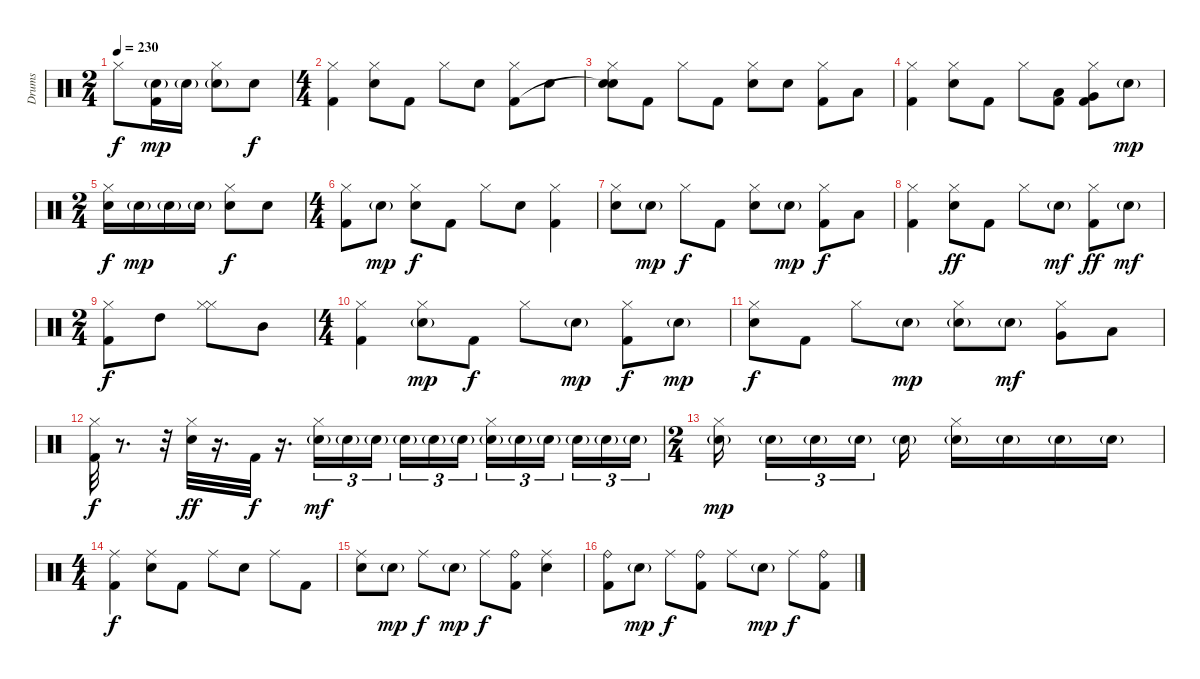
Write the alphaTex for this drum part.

\track ("Drums" "Drums") {instrument percussion}
\staff {score}
\articulation defaults
\ts (2 4)
\tempo 230
\clef neutral
\ks c "Hi-Hat (closed)".8{dy f}
("Snare (hit) 2"{g} "Kick (hit) 2").16{dy mp} "Snare (hit) 2"{g}.16 ("Hi-Hat (closed)" "Snare (hit) 2"{g}).8 "Snare (hit) 2".8{dy f} |
\ts (4 4)
("Hi-Hat (closed)" "Kick (hit) 2").4 ("Hi-Hat (closed)" "Snare (hit) 2").8 "Kick (hit) 2".8 "Hi-Hat (closed)".8 "Snare (hit) 2".8 ("Hi-Hat (closed)" "Kick (hit) 2").8 "Snare (hit) 2".8 |
("Hi-Hat (closed)" "Snare (hit)"{t} "Electric Snare (hit)").8 "Kick (hit) 2".8 "Hi-Hat (closed)".8 "Kick (hit) 2".8 ("Hi-Hat (closed)" "Snare (hit) 2").8 "Snare (hit) 2".8 ("Hi-Hat (closed)" "Kick (hit) 2").8 "Low Tom (hit)".8 |
("Hi-Hat (closed)" "Kick (hit) 2").4 ("Hi-Hat (closed)" "Snare (hit) 2").8 "Kick (hit) 2".8 "Hi-Hat (closed)".8 ("Low Tom (hit)" "Kick (hit) 2").8 ("Hi-Hat (closed)" "Very Low Tom (hit)" "Kick (hit) 2").8 "Snare (hit) 2"{g}.8{dy mp} |
\ts (2 4)
("Hi-Hat (closed)" "Snare (hit) 2").16{dy f} "Snare (hit) 2"{g}.16{dy mp} "Snare (hit) 2"{g}.16 "Snare (hit) 2"{g}.16 ("Hi-Hat (closed)" "Snare (hit) 2").8{dy f} "Snare (hit) 2".8 |
\ts (4 4)
("Hi-Hat (closed)" "Kick (hit) 2").8 "Snare (hit) 2"{g}.8{dy mp} ("Hi-Hat (closed)" "Snare (hit) 2").8{dy f} "Kick (hit) 2".8 "Hi-Hat (closed)".8 "Snare (hit) 2".8 ("Hi-Hat (closed)" "Kick (hit) 2").4 |
("Hi-Hat (closed)" "Snare (hit) 2").8 "Snare (hit) 2"{g}.8{dy mp} "Hi-Hat (closed)".8{dy f} "Kick (hit) 2".8 ("Hi-Hat (closed)" "Snare (hit) 2").8 "Snare (hit) 2"{g}.8{dy mp} ("Hi-Hat (closed)" "Kick (hit) 2").8{dy f} "Low Tom (hit)".8 |
("Hi-Hat (closed)" "Kick (hit) 2").4 ("Hi-Hat (closed)" "Snare (hit) 2").8{dy ff} "Kick (hit) 2".8 "Hi-Hat (closed)".8 "Snare (hit) 2"{g}.8{dy mf} ("Hi-Hat (closed)" "Kick (hit) 2").8{dy ff} "Snare (hit) 2"{g}.8{dy mf} |
\ts (2 4)
("Hi-Hat (closed)" "Kick (hit) 2").8{dy f} "High Tom (hit)".8 ("Hi-Hat (closed)" "Hi-Hat (closed)").8 "Mid Tom (hit)".8 |
\ts (4 4)
("Hi-Hat (closed)" "Kick (hit) 2").4 ("Hi-Hat (closed)" "Snare (hit) 2"{g}).8{dy mp} "Kick (hit) 2".8{dy f} "Hi-Hat (closed)".8 "Snare (hit) 2"{g}.8{dy mp} ("Hi-Hat (closed)" "Kick (hit) 2").8{dy f} "Snare (hit) 2"{g}.8{dy mp} |
("Hi-Hat (closed)" "Snare (hit) 2").8{dy f} "Kick (hit) 2".8 "Hi-Hat (closed)".8 "Snare (hit) 2"{g}.8{dy mp} ("Hi-Hat (closed)" "Snare (hit) 2"{g}).8 "Snare (hit) 2"{g}.8{dy mf} ("Hi-Hat (closed)" "Very Low Tom (hit)").8 "Low Floor Tom (hit)".8 |
("Hi-Hat (closed)" "Kick (hit) 2").32{dy f} r.8{d} r.32 ("Hi-Hat (closed)" "Snare (hit) 2").32{dy ff} r.16{d} "Kick (hit) 2".32{dy f} r.16{d} ("Hi-Hat (closed)" "Snare (hit) 2"{g}).16{tu (3 2) dy mf} "Snare (hit) 2"{g}.16{tu (3 2)} "Snare (hit) 2"{g}.16{tu (3 2)} "Snare (hit) 2"{g}.16{tu (3 2)} "Snare (hit) 2"{g}.16{tu (3 2)} "Snare (hit) 2"{g}.16{tu (3 2)} ("Hi-Hat (closed)" "Snare (hit) 2"{g}).16{tu (3 2)} "Snare (hit) 2"{g}.16{tu (3 2)} "Snare (hit) 2"{g}.16{tu (3 2)} "Snare (hit) 2"{g}.16{tu (3 2)} "Snare (hit) 2"{g}.16{tu (3 2)} "Snare (hit) 2"{g}.16{tu (3 2)} |
\ts (2 4)
("Hi-Hat (closed)" "Snare (hit) 2"{g}).16{dy mp} "Snare (hit) 2"{g}.16{tu (3 2)} "Snare (hit) 2"{g}.16{tu (3 2)} "Snare (hit) 2"{g}.16{tu (3 2)} "Snare (hit) 2"{g}.16 ("Hi-Hat (closed)" "Snare (hit) 2"{g}).16 "Snare (hit) 2"{g}.16 "Snare (hit) 2"{g}.16 "Snare (hit) 2"{g}.16 |
\ts (4 4)
("Ride (middle)" "Kick (hit) 2").4{dy f} ("Ride (middle)" "Snare (hit) 2").8 "Kick (hit) 2".8 "Ride (middle)".8 "Snare (hit) 2".8 "Ride (middle)".8 "Kick (hit) 2".8 |
("Ride (middle)" "Snare (hit) 2").8 "Snare (hit) 2"{g}.8{dy mp} "Ride (middle)".8{dy f} "Snare (hit) 2"{g}.8{dy mp} "Ride (middle)".8{dy f} ("Ride (bell)" "Kick (hit) 2").8 ("Ride (middle)" "Snare (hit) 2").4 |
("Ride (bell)" "Kick (hit) 2").8 "Snare (hit) 2"{g}.8{dy mp} "Ride (middle)".8{dy f} ("Ride (bell)" "Kick (hit) 2").8 "Ride (middle)".8 "Snare (hit) 2"{g}.8{dy mp} "Ride (middle)".8{dy f} ("Ride (bell)" "Kick (hit) 2").8
